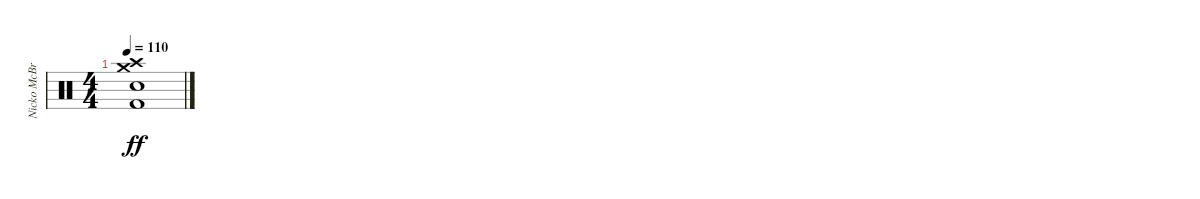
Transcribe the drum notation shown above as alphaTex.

\track ("Nicko McBrain" "Nicko McBr") {instrument percussion}
\staff {score}
\articulation defaults
\ts (4 4)
\tempo 110
\clef neutral
\ks c
("Snare (hit) 2" "Crash high (hit)" "Kick (hit) 2" "Crash medium (hit)").1{dy ff}
